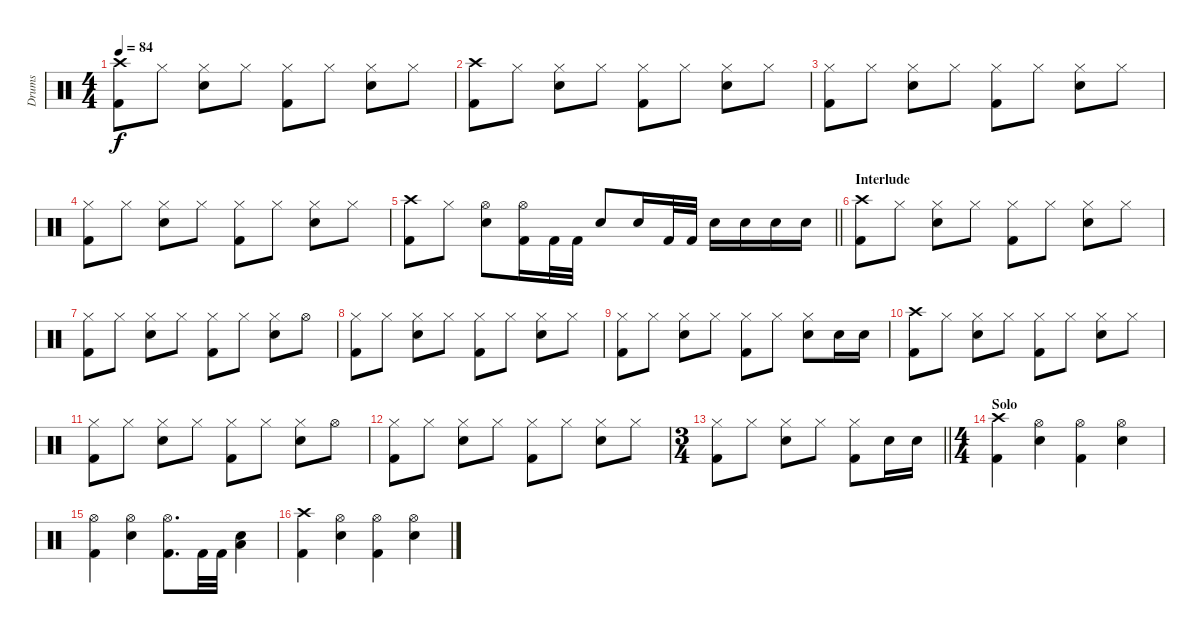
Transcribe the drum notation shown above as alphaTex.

\track ("Drums" "Drums") {instrument percussion}
\staff {score}
\articulation defaults
\ts (4 4)
\tempo 84
\clef neutral
\ks c
("Crash high (hit)" "Kick (hit) 2").8{dy f} "Hi-Hat (closed)".8 ("Hi-Hat (closed)" "Snare (hit) 2").8 "Hi-Hat (closed)".8 ("Hi-Hat (closed)" "Kick (hit) 2").8 "Hi-Hat (closed)".8 ("Hi-Hat (closed)" "Snare (hit) 2").8 "Hi-Hat (closed)".8 |
("Crash high (hit)" "Kick (hit) 2").8 "Hi-Hat (closed)".8 ("Hi-Hat (closed)" "Snare (hit) 2").8 "Hi-Hat (closed)".8 ("Hi-Hat (closed)" "Kick (hit) 2").8 "Hi-Hat (closed)".8 ("Hi-Hat (closed)" "Snare (hit) 2").8 "Hi-Hat (closed)".8 |
("Hi-Hat (closed)" "Kick (hit) 2").8 "Hi-Hat (closed)".8 ("Hi-Hat (closed)" "Snare (hit) 2").8 "Hi-Hat (closed)".8 ("Hi-Hat (closed)" "Kick (hit) 2").8 "Hi-Hat (closed)".8 ("Hi-Hat (closed)" "Snare (hit) 2").8 "Hi-Hat (closed)".8 |
("Hi-Hat (closed)" "Kick (hit) 2").8 "Hi-Hat (closed)".8 ("Hi-Hat (closed)" "Snare (hit) 2").8 "Hi-Hat (closed)".8 ("Hi-Hat (closed)" "Kick (hit) 2").8 "Hi-Hat (closed)".8 ("Hi-Hat (closed)" "Snare (hit) 2").8 "Hi-Hat (closed)".8 |
\barLineRight lightlight
("Crash high (hit)" "Kick (hit) 2").8 "Hi-Hat (closed)".8 ("Hi-Hat (open)" "Snare (hit) 2").8 ("Hi-Hat (open)" "Kick (hit) 2").16 "Kick (hit) 2".32 "Kick (hit) 2".32 "Snare (hit) 2".8 "Snare (hit) 2".16 "Kick (hit) 2".32 "Kick (hit) 2".32 "Snare (hit) 2".16 "Snare (hit) 2".16 "Electric Snare (hit)".16 "Electric Snare (hit)".16 |
\section ("" "Interlude")
("Crash high (hit)" "Kick (hit) 2").8 "Hi-Hat (closed)".8 ("Hi-Hat (closed)" "Snare (hit) 2").8 "Hi-Hat (closed)".8 ("Hi-Hat (closed)" "Kick (hit) 2").8 "Hi-Hat (closed)".8 ("Hi-Hat (closed)" "Snare (hit) 2").8 "Hi-Hat (closed)".8 |
("Hi-Hat (closed)" "Kick (hit) 2").8 "Hi-Hat (closed)".8 ("Hi-Hat (closed)" "Snare (hit) 2").8 "Hi-Hat (closed)".8 ("Hi-Hat (closed)" "Kick (hit) 2").8 "Hi-Hat (closed)".8 ("Hi-Hat (closed)" "Snare (hit) 2").8 "Hi-Hat (open)".8 |
("Hi-Hat (closed)" "Kick (hit) 2").8 "Hi-Hat (closed)".8 ("Hi-Hat (closed)" "Snare (hit) 2").8 "Hi-Hat (closed)".8 ("Hi-Hat (closed)" "Kick (hit) 2").8 "Hi-Hat (closed)".8 ("Hi-Hat (closed)" "Snare (hit) 2").8 "Hi-Hat (closed)".8 |
("Hi-Hat (closed)" "Kick (hit) 2").8 "Hi-Hat (closed)".8 ("Hi-Hat (closed)" "Snare (hit) 2").8 "Hi-Hat (closed)".8 ("Hi-Hat (closed)" "Kick (hit) 2").8 "Hi-Hat (closed)".8 ("Hi-Hat (closed)" "Snare (hit) 2").8 "Snare (hit) 2".16 "Snare (hit) 2".16 |
("Crash high (hit)" "Kick (hit) 2").8 "Hi-Hat (closed)".8 ("Hi-Hat (closed)" "Snare (hit) 2").8 "Hi-Hat (closed)".8 ("Hi-Hat (closed)" "Kick (hit) 2").8 "Hi-Hat (closed)".8 ("Hi-Hat (closed)" "Snare (hit) 2").8 "Hi-Hat (closed)".8 |
("Hi-Hat (closed)" "Kick (hit) 2").8 "Hi-Hat (closed)".8 ("Hi-Hat (closed)" "Snare (hit) 2").8 "Hi-Hat (closed)".8 ("Hi-Hat (closed)" "Kick (hit) 2").8 "Hi-Hat (closed)".8 ("Hi-Hat (closed)" "Snare (hit) 2").8 "Hi-Hat (open)".8 |
("Hi-Hat (closed)" "Kick (hit) 2").8 "Hi-Hat (closed)".8 ("Hi-Hat (closed)" "Snare (hit) 2").8 "Hi-Hat (closed)".8 ("Hi-Hat (closed)" "Kick (hit) 2").8 "Hi-Hat (closed)".8 ("Hi-Hat (closed)" "Snare (hit) 2").8 "Hi-Hat (closed)".8 |
\ts (3 4)
\barLineRight lightlight
("Hi-Hat (closed)" "Kick (hit) 2").8 "Hi-Hat (closed)".8 ("Hi-Hat (closed)" "Snare (hit) 2").8 "Hi-Hat (closed)".8 ("Hi-Hat (closed)" "Kick (hit) 2").8 "Snare (hit) 2".16 "Snare (hit) 2".16 |
\ts (4 4)
\section ("" "Solo")
("Crash high (hit)" "Kick (hit) 2").4 ("Hi-Hat (open)" "Snare (hit) 2").4 ("Hi-Hat (open)" "Kick (hit) 2").4 ("Hi-Hat (open)" "Snare (hit) 2").4 |
("Hi-Hat (open)" "Kick (hit) 2").4 ("Hi-Hat (open)" "Snare (hit) 2").4 ("Hi-Hat (open)" "Kick (hit) 2").8{d} "Kick (hit) 2".32 "Kick (hit) 2".32 ("Snare (hit) 2" "Low Tom (hit)").4 |
("Crash high (hit)" "Kick (hit) 2").4 ("Hi-Hat (open)" "Snare (hit) 2").4 ("Hi-Hat (open)" "Kick (hit) 2").4 ("Hi-Hat (open)" "Snare (hit) 2").4
